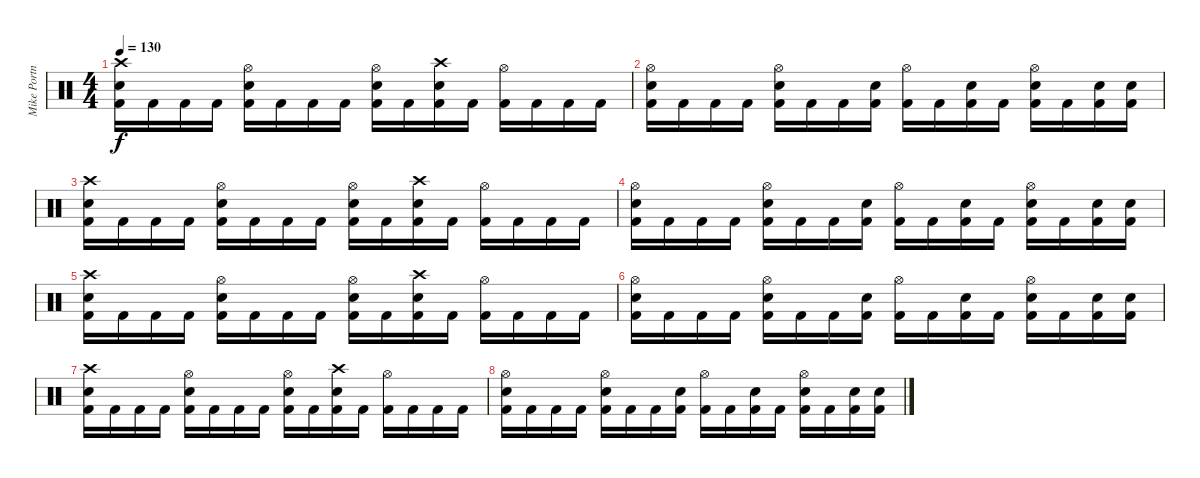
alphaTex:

\track ("Mike Portnoy" "Mike Portn") {instrument percussion}
\staff {score}
\articulation defaults
\ts (4 4)
\tempo 130
\clef neutral
\ks c
("Crash high (hit)" "Snare (hit) 2" "Kick (hit) 2").16{dy f} "Kick (hit) 2".16 "Kick (hit) 2".16 "Kick (hit) 2".16 ("Hi-Hat (open)" "Snare (hit) 2" "Kick (hit) 2").16 "Kick (hit) 2".16 "Kick (hit) 2".16 "Kick (hit) 2".16 ("Hi-Hat (open)" "Snare (hit) 2" "Kick (hit) 2").16 "Kick (hit) 2".16 ("Crash high (hit)" "Snare (hit) 2" "Kick (hit) 2").16 "Kick (hit) 2".16 ("Hi-Hat (open)" "Kick (hit) 2").16 "Kick (hit) 2".16 "Kick (hit) 2".16 "Kick (hit) 2".16 |
("Hi-Hat (open)" "Snare (hit) 2" "Kick (hit) 2").16 "Kick (hit) 2".16 "Kick (hit) 2".16 "Kick (hit) 2".16 ("Hi-Hat (open)" "Snare (hit) 2" "Kick (hit) 2").16 "Kick (hit) 2".16 "Kick (hit) 2".16 ("Snare (hit) 2" "Kick (hit) 2").16 ("Hi-Hat (open)" "Kick (hit) 2").16 "Kick (hit) 2".16 ("Snare (hit) 2" "Kick (hit) 2").16 "Kick (hit) 2".16 ("Hi-Hat (open)" "Snare (hit) 2" "Kick (hit) 2").16 "Kick (hit) 2".16 ("Snare (hit) 2" "Kick (hit) 2").16 ("Snare (hit) 2" "Kick (hit) 2").16 |
("Crash high (hit)" "Snare (hit) 2" "Kick (hit) 2").16 "Kick (hit) 2".16 "Kick (hit) 2".16 "Kick (hit) 2".16 ("Hi-Hat (open)" "Snare (hit) 2" "Kick (hit) 2").16 "Kick (hit) 2".16 "Kick (hit) 2".16 "Kick (hit) 2".16 ("Hi-Hat (open)" "Snare (hit) 2" "Kick (hit) 2").16 "Kick (hit) 2".16 ("Crash high (hit)" "Snare (hit) 2" "Kick (hit) 2").16 "Kick (hit) 2".16 ("Hi-Hat (open)" "Kick (hit) 2").16 "Kick (hit) 2".16 "Kick (hit) 2".16 "Kick (hit) 2".16 |
("Hi-Hat (open)" "Snare (hit) 2" "Kick (hit) 2").16 "Kick (hit) 2".16 "Kick (hit) 2".16 "Kick (hit) 2".16 ("Hi-Hat (open)" "Snare (hit) 2" "Kick (hit) 2").16 "Kick (hit) 2".16 "Kick (hit) 2".16 ("Snare (hit) 2" "Kick (hit) 2").16 ("Hi-Hat (open)" "Kick (hit) 2").16 "Kick (hit) 2".16 ("Snare (hit) 2" "Kick (hit) 2").16 "Kick (hit) 2".16 ("Hi-Hat (open)" "Snare (hit) 2" "Kick (hit) 2").16 "Kick (hit) 2".16 ("Snare (hit) 2" "Kick (hit) 2").16 ("Snare (hit) 2" "Kick (hit) 2").16 |
("Crash high (hit)" "Snare (hit) 2" "Kick (hit) 2").16 "Kick (hit) 2".16 "Kick (hit) 2".16 "Kick (hit) 2".16 ("Hi-Hat (open)" "Snare (hit) 2" "Kick (hit) 2").16 "Kick (hit) 2".16 "Kick (hit) 2".16 "Kick (hit) 2".16 ("Hi-Hat (open)" "Snare (hit) 2" "Kick (hit) 2").16 "Kick (hit) 2".16 ("Crash high (hit)" "Snare (hit) 2" "Kick (hit) 2").16 "Kick (hit) 2".16 ("Hi-Hat (open)" "Kick (hit) 2").16 "Kick (hit) 2".16 "Kick (hit) 2".16 "Kick (hit) 2".16 |
("Hi-Hat (open)" "Snare (hit) 2" "Kick (hit) 2").16 "Kick (hit) 2".16 "Kick (hit) 2".16 "Kick (hit) 2".16 ("Hi-Hat (open)" "Snare (hit) 2" "Kick (hit) 2").16 "Kick (hit) 2".16 "Kick (hit) 2".16 ("Snare (hit) 2" "Kick (hit) 2").16 ("Hi-Hat (open)" "Kick (hit) 2").16 "Kick (hit) 2".16 ("Snare (hit) 2" "Kick (hit) 2").16 "Kick (hit) 2".16 ("Hi-Hat (open)" "Snare (hit) 2" "Kick (hit) 2").16 "Kick (hit) 2".16 ("Snare (hit) 2" "Kick (hit) 2").16 ("Snare (hit) 2" "Kick (hit) 2").16 |
("Crash high (hit)" "Snare (hit) 2" "Kick (hit) 2").16 "Kick (hit) 2".16 "Kick (hit) 2".16 "Kick (hit) 2".16 ("Hi-Hat (open)" "Snare (hit) 2" "Kick (hit) 2").16 "Kick (hit) 2".16 "Kick (hit) 2".16 "Kick (hit) 2".16 ("Hi-Hat (open)" "Snare (hit) 2" "Kick (hit) 2").16 "Kick (hit) 2".16 ("Crash high (hit)" "Snare (hit) 2" "Kick (hit) 2").16 "Kick (hit) 2".16 ("Hi-Hat (open)" "Kick (hit) 2").16 "Kick (hit) 2".16 "Kick (hit) 2".16 "Kick (hit) 2".16 |
("Hi-Hat (open)" "Snare (hit) 2" "Kick (hit) 2").16 "Kick (hit) 2".16 "Kick (hit) 2".16 "Kick (hit) 2".16 ("Hi-Hat (open)" "Snare (hit) 2" "Kick (hit) 2").16 "Kick (hit) 2".16 "Kick (hit) 2".16 ("Snare (hit) 2" "Kick (hit) 2").16 ("Hi-Hat (open)" "Kick (hit) 2").16 "Kick (hit) 2".16 ("Snare (hit) 2" "Kick (hit) 2").16 "Kick (hit) 2".16 ("Hi-Hat (open)" "Snare (hit) 2" "Kick (hit) 2").16 "Kick (hit) 2".16 ("Snare (hit) 2" "Kick (hit) 2").16 ("Snare (hit) 2" "Kick (hit) 2").16
